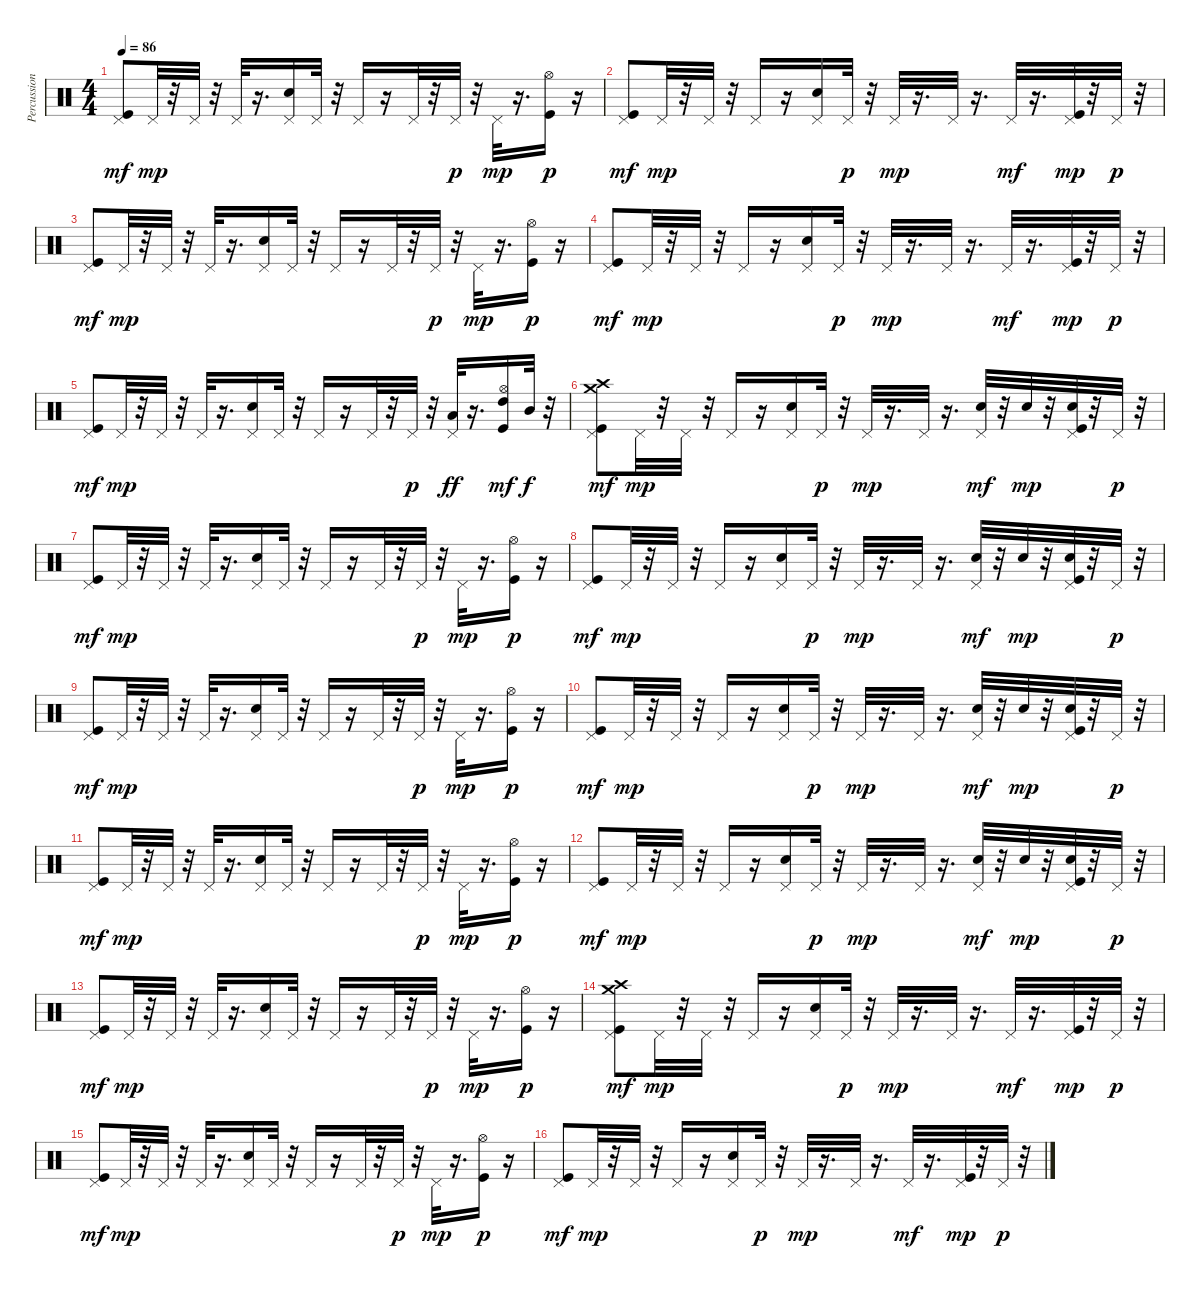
\track ("Percussions" "Percussion") {instrument percussion}
\staff {score}
\articulation defaults
\ts (4 4)
\tempo 86
\clef neutral
\ks c
("Kick (hit)" "Pedal Hi-Hat (hit)").8{dy mf} "Pedal Hi-Hat (hit)".32{dy mp} r.32 "Pedal Hi-Hat (hit)".32 r.32 "Pedal Hi-Hat (hit)".32 r.16{d} ("Electric Snare (hit)" "Pedal Hi-Hat (hit)").16 "Pedal Hi-Hat (hit)".32 r.32 "Pedal Hi-Hat (hit)".16 r.16 "Pedal Hi-Hat (hit)".32 r.32 "Pedal Hi-Hat (hit)".32{dy p} r.32 "Pedal Hi-Hat (hit)".32{dy mp} r.16{d} ("Kick (hit)" "Hi-Hat (open)").16{dy p} r.16 |
("Kick (hit)" "Pedal Hi-Hat (hit)").8{dy mf} "Pedal Hi-Hat (hit)".32{dy mp} r.32 "Pedal Hi-Hat (hit)".32 r.32 "Pedal Hi-Hat (hit)".16 r.16 ("Electric Snare (hit)" "Pedal Hi-Hat (hit)").16 "Pedal Hi-Hat (hit)".32{dy p} r.32 "Pedal Hi-Hat (hit)".32{dy mp} r.16{d} "Pedal Hi-Hat (hit)".32 r.16{d} "Pedal Hi-Hat (hit)".32{dy mf} r.16{d} ("Kick (hit)" "Pedal Hi-Hat (hit)").32{dy mp} r.32 "Pedal Hi-Hat (hit)".32{dy p} r.32 |
("Kick (hit)" "Pedal Hi-Hat (hit)").8{dy mf} "Pedal Hi-Hat (hit)".32{dy mp} r.32 "Pedal Hi-Hat (hit)".32 r.32 "Pedal Hi-Hat (hit)".32 r.16{d} ("Electric Snare (hit)" "Pedal Hi-Hat (hit)").16 "Pedal Hi-Hat (hit)".32 r.32 "Pedal Hi-Hat (hit)".16 r.16 "Pedal Hi-Hat (hit)".32 r.32 "Pedal Hi-Hat (hit)".32{dy p} r.32 "Pedal Hi-Hat (hit)".32{dy mp} r.16{d} ("Kick (hit)" "Hi-Hat (open)").16{dy p} r.16 |
("Kick (hit)" "Pedal Hi-Hat (hit)").8{dy mf} "Pedal Hi-Hat (hit)".32{dy mp} r.32 "Pedal Hi-Hat (hit)".32 r.32 "Pedal Hi-Hat (hit)".16 r.16 ("Electric Snare (hit)" "Pedal Hi-Hat (hit)").16 "Pedal Hi-Hat (hit)".32{dy p} r.32 "Pedal Hi-Hat (hit)".32{dy mp} r.16{d} "Pedal Hi-Hat (hit)".32 r.16{d} "Pedal Hi-Hat (hit)".32{dy mf} r.16{d} ("Kick (hit)" "Pedal Hi-Hat (hit)").32{dy mp} r.32 "Pedal Hi-Hat (hit)".32{dy p} r.32 |
("Kick (hit)" "Pedal Hi-Hat (hit)").8{dy mf} "Pedal Hi-Hat (hit)".32{dy mp} r.32 "Pedal Hi-Hat (hit)".32 r.32 "Pedal Hi-Hat (hit)".32 r.16{d} ("Electric Snare (hit)" "Pedal Hi-Hat (hit)").16 "Pedal Hi-Hat (hit)".32 r.32 "Pedal Hi-Hat (hit)".16 r.16 "Pedal Hi-Hat (hit)".32 r.32 "Pedal Hi-Hat (hit)".32{dy p} r.32 ("Pedal Hi-Hat (hit)" "Low Tom (hit)").32{dy ff} r.16{d} ("Kick (hit)" "Hi-Hat (open)" "High Tom (hit)").16{dy mf} "Mid Tom (hit)".32{dy f} r.32 |
("Kick (hit)" "Pedal Hi-Hat (hit)" "Crash high (hit)" "Crash medium (hit)").8{dy mf} "Pedal Hi-Hat (hit)".32{dy mp} r.32 "Pedal Hi-Hat (hit)".32 r.32 "Pedal Hi-Hat (hit)".16 r.16 ("Electric Snare (hit)" "Pedal Hi-Hat (hit)").16 "Pedal Hi-Hat (hit)".32{dy p} r.32 "Pedal Hi-Hat (hit)".32{dy mp} r.16{d} "Pedal Hi-Hat (hit)".32 r.16{d} ("Hand Clap (hit)" "Pedal Hi-Hat (hit)").32{dy mf} r.32 "Hand Clap (hit)".32{dy mp} r.32 ("Kick (hit)" "Hand Clap (hit)" "Pedal Hi-Hat (hit)").32 r.32 "Pedal Hi-Hat (hit)".32{dy p} r.32 |
("Kick (hit)" "Pedal Hi-Hat (hit)").8{dy mf} "Pedal Hi-Hat (hit)".32{dy mp} r.32 "Pedal Hi-Hat (hit)".32 r.32 "Pedal Hi-Hat (hit)".32 r.16{d} ("Electric Snare (hit)" "Pedal Hi-Hat (hit)").16 "Pedal Hi-Hat (hit)".32 r.32 "Pedal Hi-Hat (hit)".16 r.16 "Pedal Hi-Hat (hit)".32 r.32 "Pedal Hi-Hat (hit)".32{dy p} r.32 "Pedal Hi-Hat (hit)".32{dy mp} r.16{d} ("Kick (hit)" "Hi-Hat (open)").16{dy p} r.16 |
("Kick (hit)" "Pedal Hi-Hat (hit)").8{dy mf} "Pedal Hi-Hat (hit)".32{dy mp} r.32 "Pedal Hi-Hat (hit)".32 r.32 "Pedal Hi-Hat (hit)".16 r.16 ("Electric Snare (hit)" "Pedal Hi-Hat (hit)").16 "Pedal Hi-Hat (hit)".32{dy p} r.32 "Pedal Hi-Hat (hit)".32{dy mp} r.16{d} "Pedal Hi-Hat (hit)".32 r.16{d} ("Hand Clap (hit)" "Pedal Hi-Hat (hit)").32{dy mf} r.32 "Hand Clap (hit)".32{dy mp} r.32 ("Kick (hit)" "Hand Clap (hit)" "Pedal Hi-Hat (hit)").32 r.32 "Pedal Hi-Hat (hit)".32{dy p} r.32 |
("Kick (hit)" "Pedal Hi-Hat (hit)").8{dy mf} "Pedal Hi-Hat (hit)".32{dy mp} r.32 "Pedal Hi-Hat (hit)".32 r.32 "Pedal Hi-Hat (hit)".32 r.16{d} ("Electric Snare (hit)" "Pedal Hi-Hat (hit)").16 "Pedal Hi-Hat (hit)".32 r.32 "Pedal Hi-Hat (hit)".16 r.16 "Pedal Hi-Hat (hit)".32 r.32 "Pedal Hi-Hat (hit)".32{dy p} r.32 "Pedal Hi-Hat (hit)".32{dy mp} r.16{d} ("Kick (hit)" "Hi-Hat (open)").16{dy p} r.16 |
("Kick (hit)" "Pedal Hi-Hat (hit)").8{dy mf} "Pedal Hi-Hat (hit)".32{dy mp} r.32 "Pedal Hi-Hat (hit)".32 r.32 "Pedal Hi-Hat (hit)".16 r.16 ("Electric Snare (hit)" "Pedal Hi-Hat (hit)").16 "Pedal Hi-Hat (hit)".32{dy p} r.32 "Pedal Hi-Hat (hit)".32{dy mp} r.16{d} "Pedal Hi-Hat (hit)".32 r.16{d} ("Hand Clap (hit)" "Pedal Hi-Hat (hit)").32{dy mf} r.32 "Hand Clap (hit)".32{dy mp} r.32 ("Kick (hit)" "Hand Clap (hit)" "Pedal Hi-Hat (hit)").32 r.32 "Pedal Hi-Hat (hit)".32{dy p} r.32 |
("Kick (hit)" "Pedal Hi-Hat (hit)").8{dy mf} "Pedal Hi-Hat (hit)".32{dy mp} r.32 "Pedal Hi-Hat (hit)".32 r.32 "Pedal Hi-Hat (hit)".32 r.16{d} ("Electric Snare (hit)" "Pedal Hi-Hat (hit)").16 "Pedal Hi-Hat (hit)".32 r.32 "Pedal Hi-Hat (hit)".16 r.16 "Pedal Hi-Hat (hit)".32 r.32 "Pedal Hi-Hat (hit)".32{dy p} r.32 "Pedal Hi-Hat (hit)".32{dy mp} r.16{d} ("Kick (hit)" "Hi-Hat (open)").16{dy p} r.16 |
("Kick (hit)" "Pedal Hi-Hat (hit)").8{dy mf} "Pedal Hi-Hat (hit)".32{dy mp} r.32 "Pedal Hi-Hat (hit)".32 r.32 "Pedal Hi-Hat (hit)".16 r.16 ("Electric Snare (hit)" "Pedal Hi-Hat (hit)").16 "Pedal Hi-Hat (hit)".32{dy p} r.32 "Pedal Hi-Hat (hit)".32{dy mp} r.16{d} "Pedal Hi-Hat (hit)".32 r.16{d} ("Hand Clap (hit)" "Pedal Hi-Hat (hit)").32{dy mf} r.32 "Hand Clap (hit)".32{dy mp} r.32 ("Kick (hit)" "Hand Clap (hit)" "Pedal Hi-Hat (hit)").32 r.32 "Pedal Hi-Hat (hit)".32{dy p} r.32 |
("Kick (hit)" "Pedal Hi-Hat (hit)").8{dy mf} "Pedal Hi-Hat (hit)".32{dy mp} r.32 "Pedal Hi-Hat (hit)".32 r.32 "Pedal Hi-Hat (hit)".32 r.16{d} ("Electric Snare (hit)" "Pedal Hi-Hat (hit)").16 "Pedal Hi-Hat (hit)".32 r.32 "Pedal Hi-Hat (hit)".16 r.16 "Pedal Hi-Hat (hit)".32 r.32 "Pedal Hi-Hat (hit)".32{dy p} r.32 "Pedal Hi-Hat (hit)".32{dy mp} r.16{d} ("Kick (hit)" "Hi-Hat (open)").16{dy p} r.16 |
("Kick (hit)" "Pedal Hi-Hat (hit)" "Crash high (hit)" "Crash medium (hit)").8{dy mf} "Pedal Hi-Hat (hit)".32{dy mp} r.32 "Pedal Hi-Hat (hit)".32 r.32 "Pedal Hi-Hat (hit)".16 r.16 ("Electric Snare (hit)" "Pedal Hi-Hat (hit)").16 "Pedal Hi-Hat (hit)".32{dy p} r.32 "Pedal Hi-Hat (hit)".32{dy mp} r.16{d} "Pedal Hi-Hat (hit)".32 r.16{d} "Pedal Hi-Hat (hit)".32{dy mf} r.16{d} ("Kick (hit)" "Pedal Hi-Hat (hit)").32{dy mp} r.32 "Pedal Hi-Hat (hit)".32{dy p} r.32 |
("Kick (hit)" "Pedal Hi-Hat (hit)").8{dy mf} "Pedal Hi-Hat (hit)".32{dy mp} r.32 "Pedal Hi-Hat (hit)".32 r.32 "Pedal Hi-Hat (hit)".32 r.16{d} ("Electric Snare (hit)" "Pedal Hi-Hat (hit)").16 "Pedal Hi-Hat (hit)".32 r.32 "Pedal Hi-Hat (hit)".16 r.16 "Pedal Hi-Hat (hit)".32 r.32 "Pedal Hi-Hat (hit)".32{dy p} r.32 "Pedal Hi-Hat (hit)".32{dy mp} r.16{d} ("Kick (hit)" "Hi-Hat (open)").16{dy p} r.16 |
("Kick (hit)" "Pedal Hi-Hat (hit)").8{dy mf} "Pedal Hi-Hat (hit)".32{dy mp} r.32 "Pedal Hi-Hat (hit)".32 r.32 "Pedal Hi-Hat (hit)".16 r.16 ("Electric Snare (hit)" "Pedal Hi-Hat (hit)").16 "Pedal Hi-Hat (hit)".32{dy p} r.32 "Pedal Hi-Hat (hit)".32{dy mp} r.16{d} "Pedal Hi-Hat (hit)".32 r.16{d} "Pedal Hi-Hat (hit)".32{dy mf} r.16{d} ("Kick (hit)" "Pedal Hi-Hat (hit)").32{dy mp} r.32 "Pedal Hi-Hat (hit)".32{dy p} r.32
